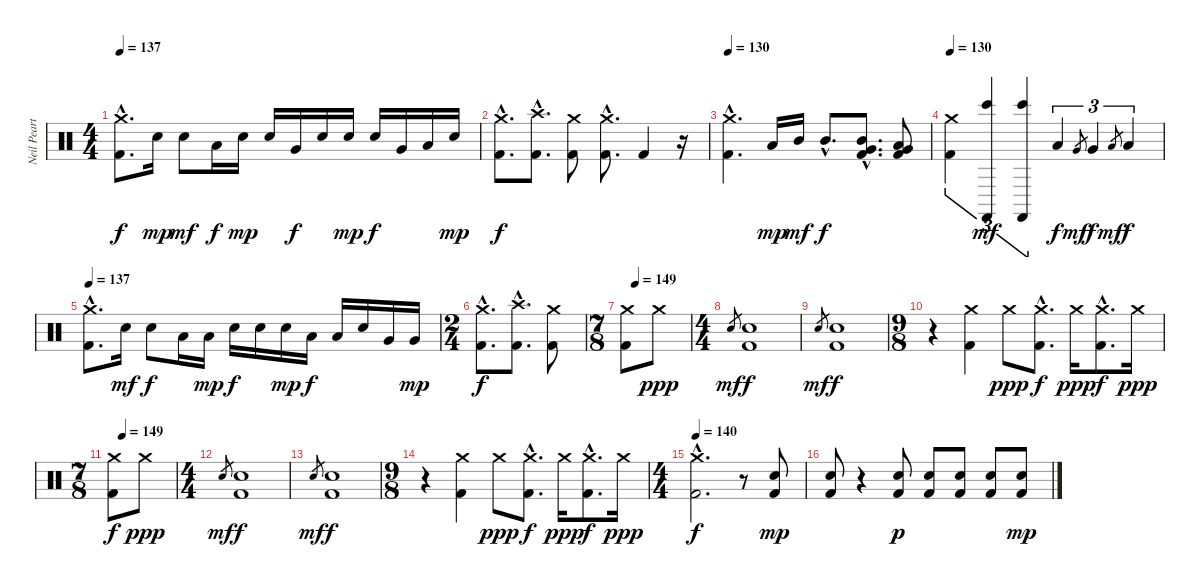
\track ("Neil Peart, Percusión" "Neil Peart") {instrument percussion}
\staff {score}
\articulation defaults
\ts (4 4)
\tempo 137
\clef neutral
\ks c
("Crash medium (hit)"{hac} "Kick (hit) 2"{hac}).8{d dy f} "Electric Snare (hit)".16{dy mp} "Electric Snare (hit)".8{dy mf} "Low Tom (hit)".16{dy f} "Electric Snare (hit)".16{dy mp} "Electric Snare (hit)".16 "Very Low Tom (hit)".16{dy f} "Electric Snare (hit)".16 "Electric Snare (hit)".16{dy mp} "Electric Snare (hit)".16{dy f} "Very Low Tom (hit)".16 "Low Floor Tom (hit)".16 "Electric Snare (hit)".16{dy mp} |
("Crash medium (hit)"{hac} "Kick (hit) 2"{hac}).8{d dy f} ("Crash high (hit)"{hac} "Kick (hit) 2"{hac}).8{d} ("Crash medium (hit)" "Kick (hit) 2").8 ("Crash medium (hit)"{hac} "Kick (hit) 2"{hac}).8{d} "Kick (hit) 2".4 r.16 |
\tempo 130
("Crash medium (hit)"{hac} "Kick (hit) 2"{hac}).4{d} "Low Tom (hit)".16{dy mp} "Mid Tom (hit)".16{dy mf} "Mid Tom (hit)"{hac}.8{d dy f} ("Mid Tom (hit)"{hac} "Very Low Tom (hit)"{hac} "Kick (hit) 2"{hac}).8{d} ("Low Tom (hit)" "Very Low Tom (hit)" "Kick (hit) 2").8 |
\tempo 130
("Crash medium (hit)" "Kick (hit) 2").4{tu (3 2)} ("Bongo High (hit)" "Castanets (hit)").4{tu (3 2) dy mf} ("Bongo High (hit)" "Castanets (hit)").4{tu (3 2)} "Low Tom (hit)".4{tu (3 2) dy f} "Very Low Tom (hit)".8{gr dy mf} "Very Low Tom (hit)".4{tu (3 2) dy f} "Low Floor Tom (hit)".8{gr dy mf} "Low Floor Tom (hit)".4{tu (3 2) dy f} |
\tempo 137
("Crash medium (hit)"{hac} "Kick (hit) 2"{hac}).8{d} "Electric Snare (hit)".16{dy mf} "Electric Snare (hit)".8{dy f} "Low Tom (hit)".16 "Low Tom (hit)".16{dy mp} "Electric Snare (hit)".16{dy f} "Electric Snare (hit)".16 "Electric Snare (hit)".16{dy mp} "Low Tom (hit)".16{dy f} "Low Tom (hit)".16 "Electric Snare (hit)".16 "Very Low Tom (hit)".16 "Very Low Tom (hit)".16{dy mp} |
\ts (2 4)
("Crash medium (hit)"{hac} "Kick (hit) 2"{hac}).8{d dy f} ("Crash high (hit)"{hac} "Kick (hit) 2"{hac}).8{d} ("Crash medium (hit)" "Kick (hit) 2").8 |
\ts (7 8)
\tempo (149 0.14285714285714285)
("Crash medium (hit)" "Kick (hit) 2").8 "Crash medium (hit)".8{dy ppp} |
\ts (4 4)
"Electric Snare (hit)".8{gr dy mf} ("Electric Snare (hit)" "Kick (hit) 2").1{dy f} |
"Electric Snare (hit)".8{gr dy mf} ("Electric Snare (hit)" "Kick (hit) 2").1{dy f} |
\ts (9 8)
r.4 ("Crash medium (hit)" "Kick (hit) 2").4 "Crash medium (hit)".8{dy ppp} ("Crash medium (hit)"{hac} "Kick (hit) 2"{hac}).8{d dy f} "Crash medium (hit)".16{dy ppp} ("Crash medium (hit)"{hac} "Kick (hit) 2"{hac}).8{d dy f} "Crash medium (hit)".16{dy ppp} |
\ts (7 8)
\tempo (149 0.14285714285714285)
("Crash medium (hit)" "Kick (hit) 2").8{dy f} "Crash medium (hit)".8{dy ppp} |
\ts (4 4)
"Electric Snare (hit)".8{gr dy mf} ("Electric Snare (hit)" "Kick (hit) 2").1{dy f} |
"Electric Snare (hit)".8{gr dy mf} ("Electric Snare (hit)" "Kick (hit) 2").1{dy f} |
\ts (9 8)
r.4 ("Crash medium (hit)" "Kick (hit) 2").4 "Crash medium (hit)".8{dy ppp} ("Crash medium (hit)"{hac} "Kick (hit) 2"{hac}).8{d dy f} "Crash medium (hit)".16{dy ppp} ("Crash medium (hit)"{hac} "Kick (hit) 2"{hac}).8{d dy f} "Crash medium (hit)".16{dy ppp} |
\ts (4 4)
\tempo 140
("Crash medium (hit)"{hac} "Kick (hit) 2"{hac}).2{d dy f} r.8 ("Electric Snare (hit)" "Kick (hit) 2").8{dy mp} |
("Electric Snare (hit)" "Kick (hit) 2").8 r.4 ("Electric Snare (hit)" "Kick (hit) 2").8{dy p} ("Electric Snare (hit)" "Kick (hit) 2").8 ("Electric Snare (hit)" "Kick (hit) 2").8 ("Electric Snare (hit)" "Kick (hit) 2").8 ("Electric Snare (hit)" "Kick (hit) 2").8{dy mp}
